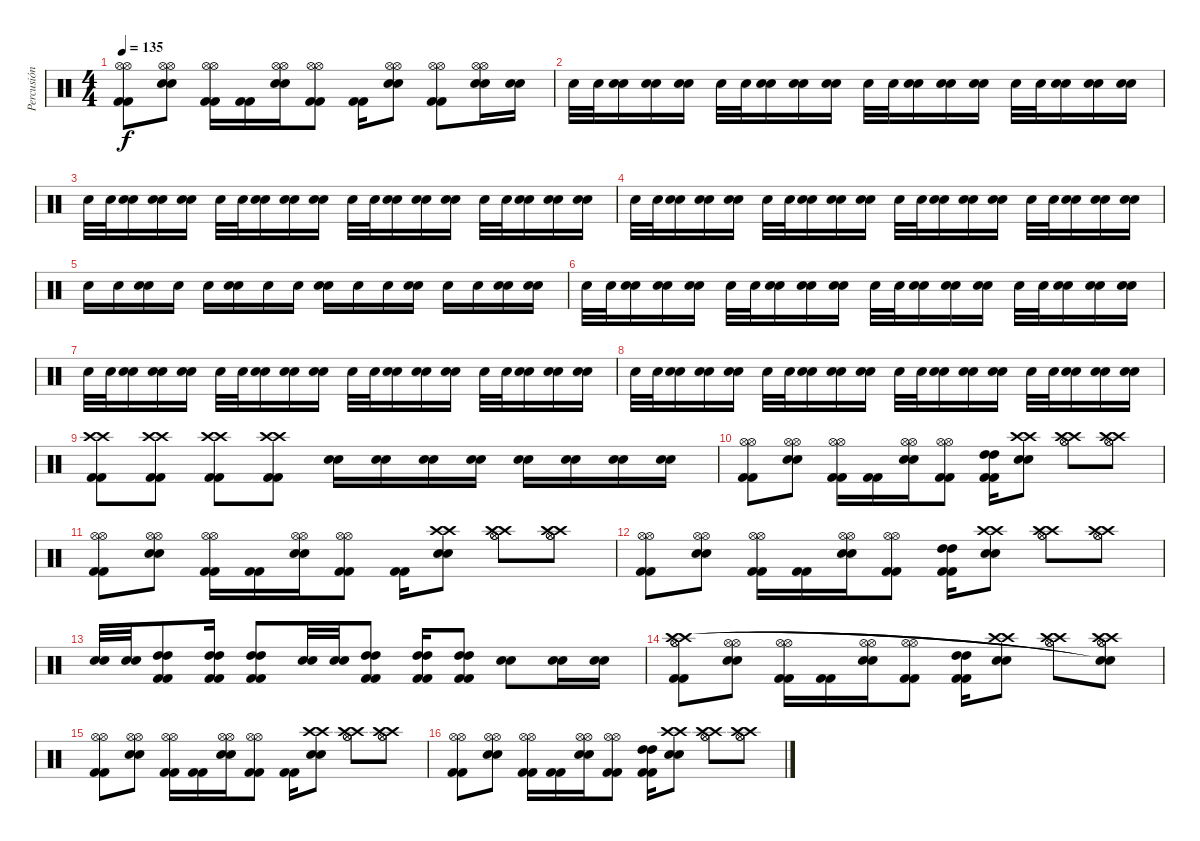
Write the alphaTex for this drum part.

\track ("Percusión" "Percusión") {instrument percussion}
\staff {score}
\articulation defaults
\ts (4 4)
\tempo 135
\clef neutral
\ks c
("Kick (hit) 2" "Kick (hit) 2" "Hi-Hat (open)" "Hi-Hat (open)").8{dy f} ("Snare (hit) 2" "Snare (hit) 2" "Hi-Hat (open)" "Hi-Hat (open)").8 ("Kick (hit) 2" "Kick (hit) 2" "Hi-Hat (open)" "Hi-Hat (open)").16 ("Kick (hit) 2" "Kick (hit) 2").16 ("Snare (hit) 2" "Snare (hit) 2" "Hi-Hat (open)" "Hi-Hat (open)").16 ("Kick (hit) 2" "Kick (hit) 2" "Hi-Hat (open)" "Hi-Hat (open)").8 ("Kick (hit) 2" "Kick (hit) 2").16 ("Snare (hit) 2" "Snare (hit) 2" "Hi-Hat (open)" "Hi-Hat (open)").8 ("Kick (hit) 2" "Kick (hit) 2" "Hi-Hat (open)" "Hi-Hat (open)").8 ("Snare (hit) 2" "Snare (hit) 2" "Hi-Hat (open)" "Hi-Hat (open)").16 ("Snare (hit) 2" "Snare (hit) 2").16 |
"Snare (hit) 2".32 "Snare (hit) 2".32 ("Snare (hit) 2" "Snare (hit) 2").16 ("Snare (hit) 2" "Snare (hit) 2").16 ("Snare (hit) 2" "Snare (hit) 2").16 "Snare (hit) 2".32 "Snare (hit) 2".32 ("Snare (hit) 2" "Snare (hit) 2").16 ("Snare (hit) 2" "Snare (hit) 2").16 ("Snare (hit) 2" "Snare (hit) 2").16 "Snare (hit) 2".32 "Snare (hit) 2".32 ("Snare (hit) 2" "Snare (hit) 2").16 ("Snare (hit) 2" "Snare (hit) 2").16 ("Snare (hit) 2" "Snare (hit) 2").16 "Snare (hit) 2".32 "Snare (hit) 2".32 ("Snare (hit) 2" "Snare (hit) 2").16 ("Snare (hit) 2" "Snare (hit) 2").16 ("Snare (hit) 2" "Snare (hit) 2").16 |
"Snare (hit) 2".32 "Snare (hit) 2".32 ("Snare (hit) 2" "Snare (hit) 2").16 ("Snare (hit) 2" "Snare (hit) 2").16 ("Snare (hit) 2" "Snare (hit) 2").16 "Snare (hit) 2".32 "Snare (hit) 2".32 ("Snare (hit) 2" "Snare (hit) 2").16 ("Snare (hit) 2" "Snare (hit) 2").16 ("Snare (hit) 2" "Snare (hit) 2").16 "Snare (hit) 2".32 "Snare (hit) 2".32 ("Snare (hit) 2" "Snare (hit) 2").16 ("Snare (hit) 2" "Snare (hit) 2").16 ("Snare (hit) 2" "Snare (hit) 2").16 "Snare (hit) 2".32 "Snare (hit) 2".32 ("Snare (hit) 2" "Snare (hit) 2").16 ("Snare (hit) 2" "Snare (hit) 2").16 ("Snare (hit) 2" "Snare (hit) 2").16 |
"Snare (hit) 2".32 "Snare (hit) 2".32 ("Snare (hit) 2" "Snare (hit) 2").16 ("Snare (hit) 2" "Snare (hit) 2").16 ("Snare (hit) 2" "Snare (hit) 2").16 "Snare (hit) 2".32 "Snare (hit) 2".32 ("Snare (hit) 2" "Snare (hit) 2").16 ("Snare (hit) 2" "Snare (hit) 2").16 ("Snare (hit) 2" "Snare (hit) 2").16 "Snare (hit) 2".32 "Snare (hit) 2".32 ("Snare (hit) 2" "Snare (hit) 2").16 ("Snare (hit) 2" "Snare (hit) 2").16 ("Snare (hit) 2" "Snare (hit) 2").16 "Snare (hit) 2".32 "Snare (hit) 2".32 ("Snare (hit) 2" "Snare (hit) 2").16 ("Snare (hit) 2" "Snare (hit) 2").16 ("Snare (hit) 2" "Snare (hit) 2").16 |
"Snare (hit) 2".16 "Snare (hit) 2".16 ("Snare (hit) 2" "Snare (hit) 2").16 "Snare (hit) 2".16 "Snare (hit) 2".16 ("Snare (hit) 2" "Snare (hit) 2").16 "Snare (hit) 2".16 "Snare (hit) 2".16 ("Snare (hit) 2" "Snare (hit) 2").16 "Snare (hit) 2".16 "Snare (hit) 2".16 ("Snare (hit) 2" "Snare (hit) 2").16 "Snare (hit) 2".16 "Snare (hit) 2".16 ("Snare (hit) 2" "Snare (hit) 2").16 ("Snare (hit) 2" "Snare (hit) 2").16 |
"Snare (hit) 2".32 "Snare (hit) 2".32 ("Snare (hit) 2" "Snare (hit) 2").16 ("Snare (hit) 2" "Snare (hit) 2").16 ("Snare (hit) 2" "Snare (hit) 2").16 "Snare (hit) 2".32 "Snare (hit) 2".32 ("Snare (hit) 2" "Snare (hit) 2").16 ("Snare (hit) 2" "Snare (hit) 2").16 ("Snare (hit) 2" "Snare (hit) 2").16 "Snare (hit) 2".32 "Snare (hit) 2".32 ("Snare (hit) 2" "Snare (hit) 2").16 ("Snare (hit) 2" "Snare (hit) 2").16 ("Snare (hit) 2" "Snare (hit) 2").16 "Snare (hit) 2".32 "Snare (hit) 2".32 ("Snare (hit) 2" "Snare (hit) 2").16 ("Snare (hit) 2" "Snare (hit) 2").16 ("Snare (hit) 2" "Snare (hit) 2").16 |
"Snare (hit) 2".32 "Snare (hit) 2".32 ("Snare (hit) 2" "Snare (hit) 2").16 ("Snare (hit) 2" "Snare (hit) 2").16 ("Snare (hit) 2" "Snare (hit) 2").16 "Snare (hit) 2".32 "Snare (hit) 2".32 ("Snare (hit) 2" "Snare (hit) 2").16 ("Snare (hit) 2" "Snare (hit) 2").16 ("Snare (hit) 2" "Snare (hit) 2").16 "Snare (hit) 2".32 "Snare (hit) 2".32 ("Snare (hit) 2" "Snare (hit) 2").16 ("Snare (hit) 2" "Snare (hit) 2").16 ("Snare (hit) 2" "Snare (hit) 2").16 "Snare (hit) 2".32 "Snare (hit) 2".32 ("Snare (hit) 2" "Snare (hit) 2").16 ("Snare (hit) 2" "Snare (hit) 2").16 ("Snare (hit) 2" "Snare (hit) 2").16 |
"Snare (hit) 2".32 "Snare (hit) 2".32 ("Snare (hit) 2" "Snare (hit) 2").16 ("Snare (hit) 2" "Snare (hit) 2").16 ("Snare (hit) 2" "Snare (hit) 2").16 "Snare (hit) 2".32 "Snare (hit) 2".32 ("Snare (hit) 2" "Snare (hit) 2").16 ("Snare (hit) 2" "Snare (hit) 2").16 ("Snare (hit) 2" "Snare (hit) 2").16 "Snare (hit) 2".32 "Snare (hit) 2".32 ("Snare (hit) 2" "Snare (hit) 2").16 ("Snare (hit) 2" "Snare (hit) 2").16 ("Snare (hit) 2" "Snare (hit) 2").16 "Snare (hit) 2".32 "Snare (hit) 2".32 ("Snare (hit) 2" "Snare (hit) 2").16 ("Snare (hit) 2" "Snare (hit) 2").16 ("Snare (hit) 2" "Snare (hit) 2").16 |
("Crash high (hit)" "Crash high (hit)" "Kick (hit) 2" "Kick (hit) 2").8 ("Crash high (hit)" "Crash high (hit)" "Kick (hit) 2" "Kick (hit) 2").8 ("Crash high (hit)" "Crash high (hit)" "Kick (hit) 2" "Kick (hit) 2").8 ("Crash high (hit)" "Crash high (hit)" "Kick (hit) 2" "Kick (hit) 2").8 ("Snare (hit) 2" "Snare (hit) 2").16 ("Snare (hit) 2" "Snare (hit) 2").16 ("Snare (hit) 2" "Snare (hit) 2").16 ("Snare (hit) 2" "Snare (hit) 2").16 ("Snare (hit) 2" "Snare (hit) 2").16 ("Snare (hit) 2" "Snare (hit) 2").16 ("Snare (hit) 2" "Snare (hit) 2").16 ("Snare (hit) 2" "Snare (hit) 2").16 |
("Kick (hit) 2" "Kick (hit) 2" "Hi-Hat (open)" "Hi-Hat (open)").8 ("Snare (hit) 2" "Snare (hit) 2" "Hi-Hat (open)" "Hi-Hat (open)").8 ("Kick (hit) 2" "Kick (hit) 2" "Hi-Hat (open)" "Hi-Hat (open)").16 ("Kick (hit) 2" "Kick (hit) 2").16 ("Snare (hit) 2" "Snare (hit) 2" "Hi-Hat (open)" "Hi-Hat (open)").16 ("Kick (hit) 2" "Kick (hit) 2" "Hi-Hat (open)" "Hi-Hat (open)").8 ("Kick (hit) 2" "Kick (hit) 2" "High Tom (hit)" "High Tom (hit)").16 ("Snare (hit) 2" "Snare (hit) 2" "Crash high (hit)" "Crash high (hit)").8 ("Crash high (hit)" "Crash high (hit)" "Hi-Hat (open)" "Hi-Hat (open)").8 ("Crash high (hit)" "Crash high (hit)" "Hi-Hat (open)" "Hi-Hat (open)").8 |
("Kick (hit) 2" "Kick (hit) 2" "Hi-Hat (open)" "Hi-Hat (open)").8 ("Snare (hit) 2" "Snare (hit) 2" "Hi-Hat (open)" "Hi-Hat (open)").8 ("Kick (hit) 2" "Kick (hit) 2" "Hi-Hat (open)" "Hi-Hat (open)").16 ("Kick (hit) 2" "Kick (hit) 2").16 ("Snare (hit) 2" "Snare (hit) 2" "Hi-Hat (open)" "Hi-Hat (open)").16 ("Kick (hit) 2" "Kick (hit) 2" "Hi-Hat (open)" "Hi-Hat (open)").8 ("Kick (hit) 2" "Kick (hit) 2").16 ("Snare (hit) 2" "Snare (hit) 2" "Crash high (hit)" "Crash high (hit)").8 ("Crash high (hit)" "Crash high (hit)" "Hi-Hat (open)" "Hi-Hat (open)").8 ("Crash high (hit)" "Crash high (hit)" "Hi-Hat (open)" "Hi-Hat (open)").8 |
("Kick (hit) 2" "Kick (hit) 2" "Hi-Hat (open)" "Hi-Hat (open)").8 ("Snare (hit) 2" "Snare (hit) 2" "Hi-Hat (open)" "Hi-Hat (open)").8 ("Kick (hit) 2" "Kick (hit) 2" "Hi-Hat (open)" "Hi-Hat (open)").16 ("Kick (hit) 2" "Kick (hit) 2").16 ("Snare (hit) 2" "Snare (hit) 2" "Hi-Hat (open)" "Hi-Hat (open)").16 ("Kick (hit) 2" "Kick (hit) 2" "Hi-Hat (open)" "Hi-Hat (open)").8 ("Kick (hit) 2" "Kick (hit) 2" "High Tom (hit)" "High Tom (hit)").16 ("Snare (hit) 2" "Snare (hit) 2" "Crash high (hit)" "Crash high (hit)").8 ("Crash high (hit)" "Crash high (hit)" "Hi-Hat (open)" "Hi-Hat (open)").8 ("Crash high (hit)" "Crash high (hit)" "Hi-Hat (open)" "Hi-Hat (open)").8 |
("Snare (hit) 2" "Snare (hit) 2").32 ("Snare (hit) 2" "Snare (hit) 2").32 ("Kick (hit) 2" "Kick (hit) 2" "High Tom (hit)" "High Tom (hit)").8 ("Kick (hit) 2" "Kick (hit) 2" "High Tom (hit)" "High Tom (hit)").16 ("Kick (hit) 2" "Kick (hit) 2" "High Tom (hit)" "High Tom (hit)").8 ("Snare (hit) 2" "Snare (hit) 2").32 ("Snare (hit) 2" "Snare (hit) 2").32 ("Kick (hit) 2" "Kick (hit) 2" "High Tom (hit)" "High Tom (hit)").8 ("Kick (hit) 2" "Kick (hit) 2" "High Tom (hit)" "High Tom (hit)").16 ("Kick (hit) 2" "Kick (hit) 2" "High Tom (hit)" "High Tom (hit)").8 ("Snare (hit) 2" "Snare (hit) 2").8 ("Snare (hit) 2" "Snare (hit) 2").16 ("Snare (hit) 2" "Snare (hit) 2").16 |
("Kick (hit) 2" "Kick (hit) 2" "Hi-Hat (open)" "Hi-Hat (open)" "Crash high (hit)" "Crash high (hit)").8 ("Snare (hit) 2" "Snare (hit) 2" "Hi-Hat (open)" "Hi-Hat (open)").8 ("Kick (hit) 2" "Kick (hit) 2" "Hi-Hat (open)" "Hi-Hat (open)").16 ("Kick (hit) 2" "Kick (hit) 2").16 ("Snare (hit) 2" "Snare (hit) 2" "Hi-Hat (open)" "Hi-Hat (open)").16 ("Kick (hit) 2" "Kick (hit) 2" "Hi-Hat (open)" "Hi-Hat (open)").8 ("Kick (hit) 2" "Kick (hit) 2" "High Tom (hit)" "High Tom (hit)").16 ("Snare (hit) 2" "Snare (hit) 2" "Crash high (hit)" "Crash high (hit)").8 ("Crash high (hit)" "Crash high (hit)" "Hi-Hat (open)" "Hi-Hat (open)").8 ("Crash high (hit)" "Crash high (hit)" "Hi-Hat (open)" "Hi-Hat (open)" "Snare (hit)"{t} "Snare (hit)"{t}).8 |
("Kick (hit) 2" "Kick (hit) 2" "Hi-Hat (open)" "Hi-Hat (open)").8 ("Snare (hit) 2" "Snare (hit) 2" "Hi-Hat (open)" "Hi-Hat (open)").8 ("Kick (hit) 2" "Kick (hit) 2" "Hi-Hat (open)" "Hi-Hat (open)").16 ("Kick (hit) 2" "Kick (hit) 2").16 ("Snare (hit) 2" "Snare (hit) 2" "Hi-Hat (open)" "Hi-Hat (open)").16 ("Kick (hit) 2" "Kick (hit) 2" "Hi-Hat (open)" "Hi-Hat (open)").8 ("Kick (hit) 2" "Kick (hit) 2").16 ("Snare (hit) 2" "Snare (hit) 2" "Crash high (hit)" "Crash high (hit)").8 ("Crash high (hit)" "Crash high (hit)" "Hi-Hat (open)" "Hi-Hat (open)").8 ("Crash high (hit)" "Crash high (hit)" "Hi-Hat (open)" "Hi-Hat (open)").8 |
("Kick (hit) 2" "Kick (hit) 2" "Hi-Hat (open)" "Hi-Hat (open)").8 ("Snare (hit) 2" "Snare (hit) 2" "Hi-Hat (open)" "Hi-Hat (open)").8 ("Kick (hit) 2" "Kick (hit) 2" "Hi-Hat (open)" "Hi-Hat (open)").16 ("Kick (hit) 2" "Kick (hit) 2").16 ("Snare (hit) 2" "Snare (hit) 2" "Hi-Hat (open)" "Hi-Hat (open)").16 ("Kick (hit) 2" "Kick (hit) 2" "Hi-Hat (open)" "Hi-Hat (open)").8 ("Kick (hit) 2" "Kick (hit) 2" "High Tom (hit)" "High Tom (hit)").16 ("Snare (hit) 2" "Snare (hit) 2" "Crash high (hit)" "Crash high (hit)").8 ("Crash high (hit)" "Crash high (hit)" "Hi-Hat (open)" "Hi-Hat (open)").8 ("Crash high (hit)" "Crash high (hit)" "Hi-Hat (open)" "Hi-Hat (open)").8
